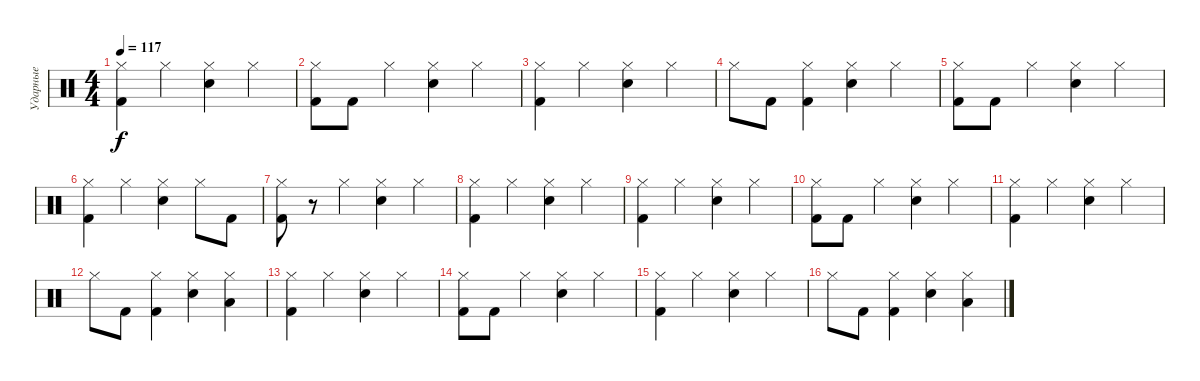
\track ("Ударные" "Ударные") {instrument percussion}
\staff {score}
\articulation defaults
\ts (4 4)
\tempo 117
\clef neutral
\ks c
("Hi-Hat (closed)" "Kick (hit) 2").4{dy f} "Hi-Hat (closed)".4 ("Hi-Hat (closed)" "Electric Snare (hit)").4 "Hi-Hat (closed)".4 |
("Hi-Hat (closed)" "Kick (hit) 2").8 "Kick (hit) 2".8 "Hi-Hat (closed)".4 ("Hi-Hat (closed)" "Electric Snare (hit)").4 "Hi-Hat (closed)".4 |
("Hi-Hat (closed)" "Kick (hit) 2").4 "Hi-Hat (closed)".4 ("Hi-Hat (closed)" "Electric Snare (hit)").4 "Hi-Hat (closed)".4 |
"Hi-Hat (closed)".8 "Kick (hit) 2".8 ("Hi-Hat (closed)" "Kick (hit) 2").4 ("Hi-Hat (closed)" "Electric Snare (hit)").4 "Hi-Hat (closed)".4 |
("Hi-Hat (closed)" "Kick (hit) 2").8 "Kick (hit) 2".8 "Hi-Hat (closed)".4 ("Hi-Hat (closed)" "Electric Snare (hit)").4 "Hi-Hat (closed)".4 |
("Hi-Hat (closed)" "Kick (hit) 2").4 "Hi-Hat (closed)".4 ("Hi-Hat (closed)" "Electric Snare (hit)").4 "Hi-Hat (closed)".8 "Kick (hit) 2".8 |
("Hi-Hat (closed)" "Kick (hit) 2").8 r.8 "Hi-Hat (closed)".4 ("Hi-Hat (closed)" "Electric Snare (hit)").4 "Hi-Hat (closed)".4 |
("Hi-Hat (closed)" "Kick (hit) 2").4 "Hi-Hat (closed)".4 ("Hi-Hat (closed)" "Electric Snare (hit)").4 "Hi-Hat (closed)".4 |
("Hi-Hat (closed)" "Kick (hit) 2").4 "Hi-Hat (closed)".4 ("Hi-Hat (closed)" "Electric Snare (hit)").4 "Hi-Hat (closed)".4 |
("Hi-Hat (closed)" "Kick (hit) 2").8 "Kick (hit) 2".8 "Hi-Hat (closed)".4 ("Hi-Hat (closed)" "Electric Snare (hit)").4 "Hi-Hat (closed)".4 |
("Hi-Hat (closed)" "Kick (hit) 2").4 "Hi-Hat (closed)".4 ("Hi-Hat (closed)" "Electric Snare (hit)").4 "Hi-Hat (closed)".4 |
"Hi-Hat (closed)".8 "Kick (hit) 2".8 ("Hi-Hat (closed)" "Kick (hit) 2").4 ("Hi-Hat (closed)" "Electric Snare (hit)").4 ("Hi-Hat (closed)" "Low Floor Tom (hit)").4 |
("Hi-Hat (closed)" "Kick (hit) 2").4 "Hi-Hat (closed)".4 ("Hi-Hat (closed)" "Electric Snare (hit)").4 "Hi-Hat (closed)".4 |
("Hi-Hat (closed)" "Kick (hit) 2").8 "Kick (hit) 2".8 "Hi-Hat (closed)".4 ("Hi-Hat (closed)" "Electric Snare (hit)").4 "Hi-Hat (closed)".4 |
("Hi-Hat (closed)" "Kick (hit) 2").4 "Hi-Hat (closed)".4 ("Hi-Hat (closed)" "Electric Snare (hit)").4 "Hi-Hat (closed)".4 |
"Hi-Hat (closed)".8 "Kick (hit) 2".8 ("Hi-Hat (closed)" "Kick (hit) 2").4 ("Hi-Hat (closed)" "Electric Snare (hit)").4 ("Hi-Hat (closed)" "Low Floor Tom (hit)").4
